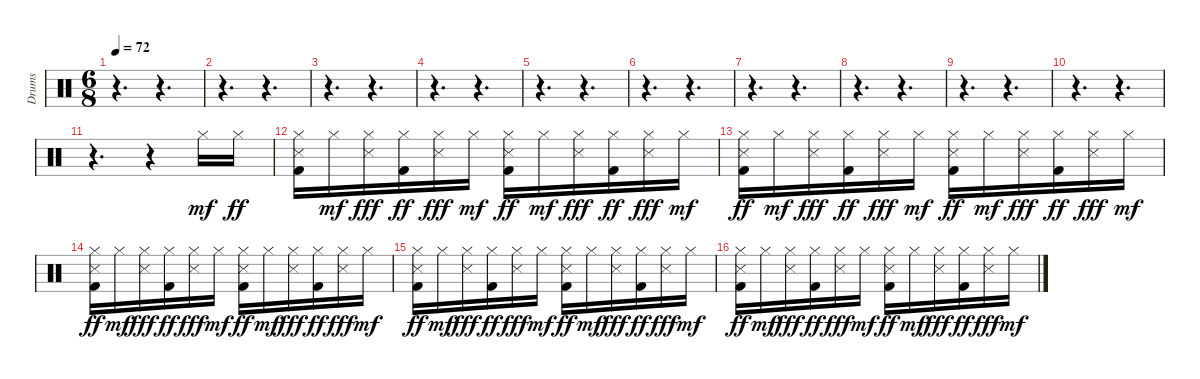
\track ("Drums" "Drums") {instrument percussion}
\staff {score}
\articulation defaults
\ts (6 8)
\tempo 72
\clef neutral
\ks c
r.4{d dy mf} r.4{d} |
r.4{d} r.4{d} |
r.4{d} r.4{d} |
r.4{d} r.4{d} |
r.4{d} r.4{d} |
r.4{d} r.4{d} |
r.4{d} r.4{d} |
r.4{d} r.4{d} |
r.4{d} r.4{d} |
r.4{d} r.4{d} |
r.4{d} r.4 "Hi-Hat (closed)".16 "Hi-Hat (closed)".16{dy ff} |
("Hi-Hat (closed)" "Snare (side stick) 3" "Kick (hit) 2").16 "Hi-Hat (closed)".16{dy mf} ("Hi-Hat (closed)" "Snare (side stick) 3").16{dy fff} ("Hi-Hat (closed)" "Kick (hit) 2").16{dy ff} ("Hi-Hat (closed)" "Snare (side stick) 3").16{dy fff} "Hi-Hat (closed)".16{dy mf} ("Hi-Hat (closed)" "Snare (side stick) 3" "Kick (hit) 2").16{dy ff} "Hi-Hat (closed)".16{dy mf} ("Hi-Hat (closed)" "Snare (side stick) 3").16{dy fff} ("Hi-Hat (closed)" "Kick (hit) 2").16{dy ff} ("Hi-Hat (closed)" "Snare (side stick) 3").16{dy fff} "Hi-Hat (closed)".16{dy mf} |
("Hi-Hat (closed)" "Snare (side stick) 3" "Kick (hit) 2").16{dy ff} "Hi-Hat (closed)".16{dy mf} ("Hi-Hat (closed)" "Snare (side stick) 3").16{dy fff} ("Hi-Hat (closed)" "Kick (hit) 2").16{dy ff} ("Hi-Hat (closed)" "Snare (side stick) 3").16{dy fff} "Hi-Hat (closed)".16{dy mf} ("Hi-Hat (closed)" "Snare (side stick) 3" "Kick (hit) 2").16{dy ff} "Hi-Hat (closed)".16{dy mf} ("Hi-Hat (closed)" "Snare (side stick) 3").16{dy fff} ("Hi-Hat (closed)" "Kick (hit) 2").16{dy ff} ("Hi-Hat (closed)" "Snare (side stick) 3").16{dy fff} "Hi-Hat (closed)".16{dy mf} |
("Hi-Hat (closed)" "Snare (side stick) 3" "Kick (hit) 2").16{dy ff} "Hi-Hat (closed)".16{dy mf} ("Hi-Hat (closed)" "Snare (side stick) 3").16{dy fff} ("Hi-Hat (closed)" "Kick (hit) 2").16{dy ff} ("Hi-Hat (closed)" "Snare (side stick) 3").16{dy fff} "Hi-Hat (closed)".16{dy mf} ("Hi-Hat (closed)" "Snare (side stick) 3" "Kick (hit) 2").16{dy ff} "Hi-Hat (closed)".16{dy mf} ("Hi-Hat (closed)" "Snare (side stick) 3").16{dy fff} ("Hi-Hat (closed)" "Kick (hit) 2").16{dy ff} ("Hi-Hat (closed)" "Snare (side stick) 3").16{dy fff} "Hi-Hat (closed)".16{dy mf} |
("Hi-Hat (closed)" "Snare (side stick) 3" "Kick (hit) 2").16{dy ff} "Hi-Hat (closed)".16{dy mf} ("Hi-Hat (closed)" "Snare (side stick) 3").16{dy fff} ("Hi-Hat (closed)" "Kick (hit) 2").16{dy ff} ("Hi-Hat (closed)" "Snare (side stick) 3").16{dy fff} "Hi-Hat (closed)".16{dy mf} ("Hi-Hat (closed)" "Snare (side stick) 3" "Kick (hit) 2").16{dy ff} "Hi-Hat (closed)".16{dy mf} ("Hi-Hat (closed)" "Snare (side stick) 3").16{dy fff} ("Hi-Hat (closed)" "Kick (hit) 2").16{dy ff} ("Hi-Hat (closed)" "Snare (side stick) 3").16{dy fff} "Hi-Hat (closed)".16{dy mf} |
("Hi-Hat (closed)" "Snare (side stick) 3" "Kick (hit) 2").16{dy ff} "Hi-Hat (closed)".16{dy mf} ("Hi-Hat (closed)" "Snare (side stick) 3").16{dy fff} ("Hi-Hat (closed)" "Kick (hit) 2").16{dy ff} ("Hi-Hat (closed)" "Snare (side stick) 3").16{dy fff} "Hi-Hat (closed)".16{dy mf} ("Hi-Hat (closed)" "Snare (side stick) 3" "Kick (hit) 2").16{dy ff} "Hi-Hat (closed)".16{dy mf} ("Hi-Hat (closed)" "Snare (side stick) 3").16{dy fff} ("Hi-Hat (closed)" "Kick (hit) 2").16{dy ff} ("Hi-Hat (closed)" "Snare (side stick) 3").16{dy fff} "Hi-Hat (closed)".16{dy mf}
